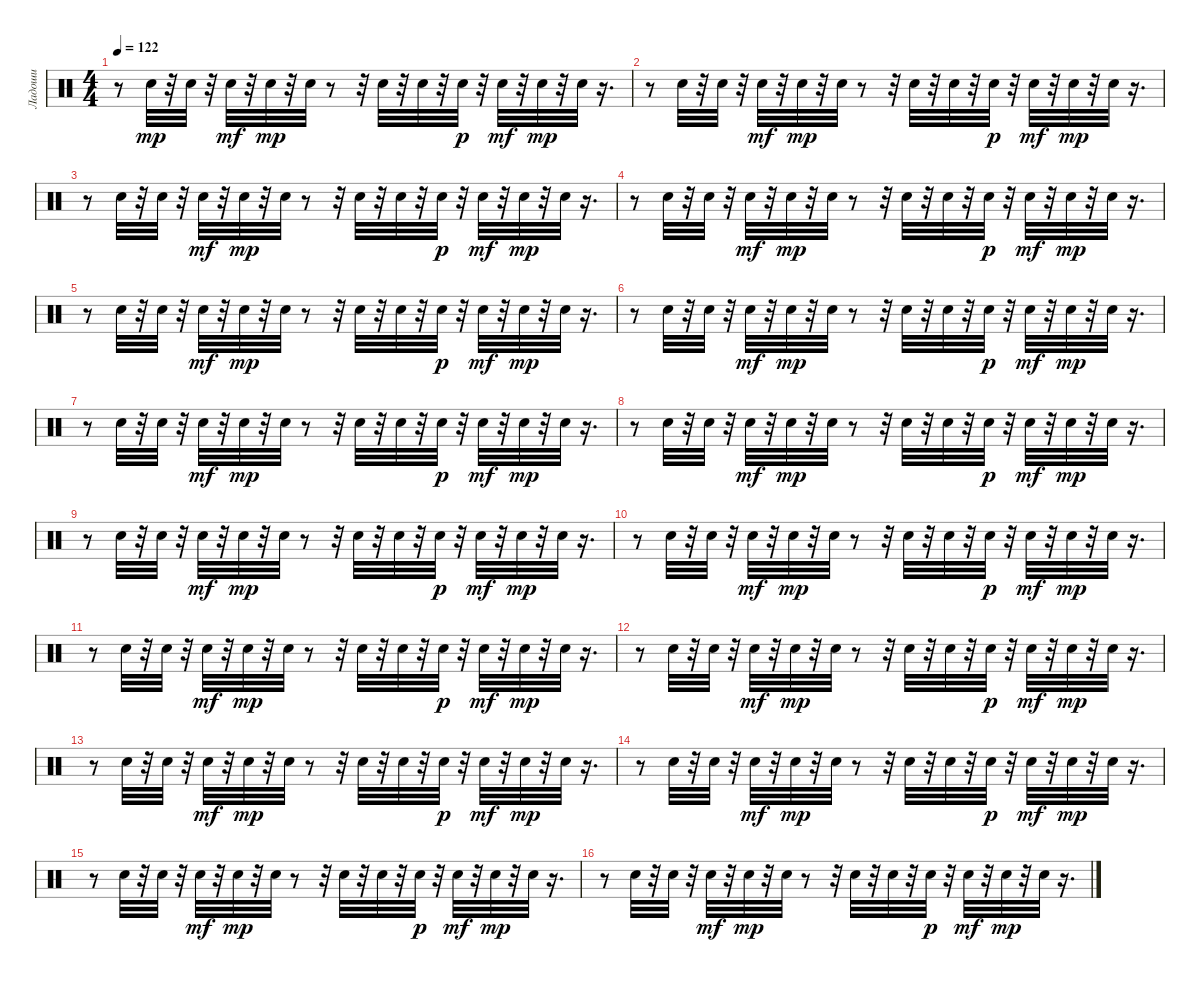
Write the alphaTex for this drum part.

\track ("Ладоши" "Ладоши") {instrument percussion}
\staff {score}
\articulation defaults
\ts (4 4)
\tempo 122
\clef neutral
\ks c
r.8{dy mp} "Hand Clap (hit)".32 r.32 "Hand Clap (hit)".32 r.32 "Hand Clap (hit)".32{dy mf} r.32 "Hand Clap (hit)".32{dy mp} r.32 "Hand Clap (hit)".32 r.8 r.32 "Hand Clap (hit)".32 r.32 "Hand Clap (hit)".32 r.32 "Hand Clap (hit)".32{dy p} r.32 "Hand Clap (hit)".32{dy mf} r.32 "Hand Clap (hit)".32{dy mp} r.32 "Hand Clap (hit)".32 r.16{d} |
r.8 "Hand Clap (hit)".32 r.32 "Hand Clap (hit)".32 r.32 "Hand Clap (hit)".32{dy mf} r.32 "Hand Clap (hit)".32{dy mp} r.32 "Hand Clap (hit)".32 r.8 r.32 "Hand Clap (hit)".32 r.32 "Hand Clap (hit)".32 r.32 "Hand Clap (hit)".32{dy p} r.32 "Hand Clap (hit)".32{dy mf} r.32 "Hand Clap (hit)".32{dy mp} r.32 "Hand Clap (hit)".32 r.16{d} |
r.8 "Hand Clap (hit)".32 r.32 "Hand Clap (hit)".32 r.32 "Hand Clap (hit)".32{dy mf} r.32 "Hand Clap (hit)".32{dy mp} r.32 "Hand Clap (hit)".32 r.8 r.32 "Hand Clap (hit)".32 r.32 "Hand Clap (hit)".32 r.32 "Hand Clap (hit)".32{dy p} r.32 "Hand Clap (hit)".32{dy mf} r.32 "Hand Clap (hit)".32{dy mp} r.32 "Hand Clap (hit)".32 r.16{d} |
r.8 "Hand Clap (hit)".32 r.32 "Hand Clap (hit)".32 r.32 "Hand Clap (hit)".32{dy mf} r.32 "Hand Clap (hit)".32{dy mp} r.32 "Hand Clap (hit)".32 r.8 r.32 "Hand Clap (hit)".32 r.32 "Hand Clap (hit)".32 r.32 "Hand Clap (hit)".32{dy p} r.32 "Hand Clap (hit)".32{dy mf} r.32 "Hand Clap (hit)".32{dy mp} r.32 "Hand Clap (hit)".32 r.16{d} |
r.8 "Hand Clap (hit)".32 r.32 "Hand Clap (hit)".32 r.32 "Hand Clap (hit)".32{dy mf} r.32 "Hand Clap (hit)".32{dy mp} r.32 "Hand Clap (hit)".32 r.8 r.32 "Hand Clap (hit)".32 r.32 "Hand Clap (hit)".32 r.32 "Hand Clap (hit)".32{dy p} r.32 "Hand Clap (hit)".32{dy mf} r.32 "Hand Clap (hit)".32{dy mp} r.32 "Hand Clap (hit)".32 r.16{d} |
r.8 "Hand Clap (hit)".32 r.32 "Hand Clap (hit)".32 r.32 "Hand Clap (hit)".32{dy mf} r.32 "Hand Clap (hit)".32{dy mp} r.32 "Hand Clap (hit)".32 r.8 r.32 "Hand Clap (hit)".32 r.32 "Hand Clap (hit)".32 r.32 "Hand Clap (hit)".32{dy p} r.32 "Hand Clap (hit)".32{dy mf} r.32 "Hand Clap (hit)".32{dy mp} r.32 "Hand Clap (hit)".32 r.16{d} |
r.8 "Hand Clap (hit)".32 r.32 "Hand Clap (hit)".32 r.32 "Hand Clap (hit)".32{dy mf} r.32 "Hand Clap (hit)".32{dy mp} r.32 "Hand Clap (hit)".32 r.8 r.32 "Hand Clap (hit)".32 r.32 "Hand Clap (hit)".32 r.32 "Hand Clap (hit)".32{dy p} r.32 "Hand Clap (hit)".32{dy mf} r.32 "Hand Clap (hit)".32{dy mp} r.32 "Hand Clap (hit)".32 r.16{d} |
r.8 "Hand Clap (hit)".32 r.32 "Hand Clap (hit)".32 r.32 "Hand Clap (hit)".32{dy mf} r.32 "Hand Clap (hit)".32{dy mp} r.32 "Hand Clap (hit)".32 r.8 r.32 "Hand Clap (hit)".32 r.32 "Hand Clap (hit)".32 r.32 "Hand Clap (hit)".32{dy p} r.32 "Hand Clap (hit)".32{dy mf} r.32 "Hand Clap (hit)".32{dy mp} r.32 "Hand Clap (hit)".32 r.16{d} |
r.8 "Hand Clap (hit)".32 r.32 "Hand Clap (hit)".32 r.32 "Hand Clap (hit)".32{dy mf} r.32 "Hand Clap (hit)".32{dy mp} r.32 "Hand Clap (hit)".32 r.8 r.32 "Hand Clap (hit)".32 r.32 "Hand Clap (hit)".32 r.32 "Hand Clap (hit)".32{dy p} r.32 "Hand Clap (hit)".32{dy mf} r.32 "Hand Clap (hit)".32{dy mp} r.32 "Hand Clap (hit)".32 r.16{d} |
r.8 "Hand Clap (hit)".32 r.32 "Hand Clap (hit)".32 r.32 "Hand Clap (hit)".32{dy mf} r.32 "Hand Clap (hit)".32{dy mp} r.32 "Hand Clap (hit)".32 r.8 r.32 "Hand Clap (hit)".32 r.32 "Hand Clap (hit)".32 r.32 "Hand Clap (hit)".32{dy p} r.32 "Hand Clap (hit)".32{dy mf} r.32 "Hand Clap (hit)".32{dy mp} r.32 "Hand Clap (hit)".32 r.16{d} |
r.8 "Hand Clap (hit)".32 r.32 "Hand Clap (hit)".32 r.32 "Hand Clap (hit)".32{dy mf} r.32 "Hand Clap (hit)".32{dy mp} r.32 "Hand Clap (hit)".32 r.8 r.32 "Hand Clap (hit)".32 r.32 "Hand Clap (hit)".32 r.32 "Hand Clap (hit)".32{dy p} r.32 "Hand Clap (hit)".32{dy mf} r.32 "Hand Clap (hit)".32{dy mp} r.32 "Hand Clap (hit)".32 r.16{d} |
r.8 "Hand Clap (hit)".32 r.32 "Hand Clap (hit)".32 r.32 "Hand Clap (hit)".32{dy mf} r.32 "Hand Clap (hit)".32{dy mp} r.32 "Hand Clap (hit)".32 r.8 r.32 "Hand Clap (hit)".32 r.32 "Hand Clap (hit)".32 r.32 "Hand Clap (hit)".32{dy p} r.32 "Hand Clap (hit)".32{dy mf} r.32 "Hand Clap (hit)".32{dy mp} r.32 "Hand Clap (hit)".32 r.16{d} |
r.8 "Hand Clap (hit)".32 r.32 "Hand Clap (hit)".32 r.32 "Hand Clap (hit)".32{dy mf} r.32 "Hand Clap (hit)".32{dy mp} r.32 "Hand Clap (hit)".32 r.8 r.32 "Hand Clap (hit)".32 r.32 "Hand Clap (hit)".32 r.32 "Hand Clap (hit)".32{dy p} r.32 "Hand Clap (hit)".32{dy mf} r.32 "Hand Clap (hit)".32{dy mp} r.32 "Hand Clap (hit)".32 r.16{d} |
r.8 "Hand Clap (hit)".32 r.32 "Hand Clap (hit)".32 r.32 "Hand Clap (hit)".32{dy mf} r.32 "Hand Clap (hit)".32{dy mp} r.32 "Hand Clap (hit)".32 r.8 r.32 "Hand Clap (hit)".32 r.32 "Hand Clap (hit)".32 r.32 "Hand Clap (hit)".32{dy p} r.32 "Hand Clap (hit)".32{dy mf} r.32 "Hand Clap (hit)".32{dy mp} r.32 "Hand Clap (hit)".32 r.16{d} |
r.8 "Hand Clap (hit)".32 r.32 "Hand Clap (hit)".32 r.32 "Hand Clap (hit)".32{dy mf} r.32 "Hand Clap (hit)".32{dy mp} r.32 "Hand Clap (hit)".32 r.8 r.32 "Hand Clap (hit)".32 r.32 "Hand Clap (hit)".32 r.32 "Hand Clap (hit)".32{dy p} r.32 "Hand Clap (hit)".32{dy mf} r.32 "Hand Clap (hit)".32{dy mp} r.32 "Hand Clap (hit)".32 r.16{d} |
r.8 "Hand Clap (hit)".32 r.32 "Hand Clap (hit)".32 r.32 "Hand Clap (hit)".32{dy mf} r.32 "Hand Clap (hit)".32{dy mp} r.32 "Hand Clap (hit)".32 r.8 r.32 "Hand Clap (hit)".32 r.32 "Hand Clap (hit)".32 r.32 "Hand Clap (hit)".32{dy p} r.32 "Hand Clap (hit)".32{dy mf} r.32 "Hand Clap (hit)".32{dy mp} r.32 "Hand Clap (hit)".32 r.16{d}
